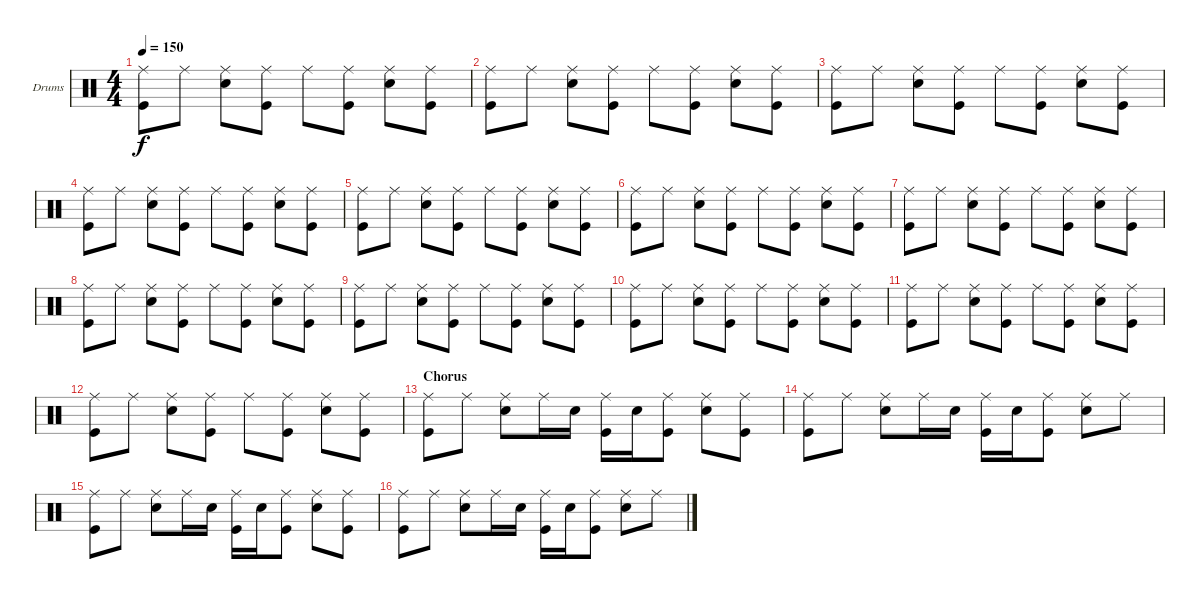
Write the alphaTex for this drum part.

\bracketExtendMode groupsimilarinstruments
\firstSystemTrackNameOrientation horizontal
\otherSystemsTrackNameOrientation horizontal
\track ("Fabrizio" "Drums") {instrument percussion}
\staff {score}
\articulation defaults
\ts (4 4)
\tempo 150
\clef neutral
\ks c
("Ride (middle)" "Kick (hit)").8{dy f} "Ride (middle)".8 ("Ride (middle)" "Snare (hit) 2").8 ("Ride (middle)" "Kick (hit)").8 "Ride (middle)".8 ("Ride (middle)" "Kick (hit)").8 ("Ride (middle)" "Snare (hit) 2").8 ("Ride (middle)" "Kick (hit)").8 |
("Ride (middle)" "Kick (hit)").8 "Ride (middle)".8 ("Ride (middle)" "Snare (hit) 2").8 ("Ride (middle)" "Kick (hit)").8 "Ride (middle)".8 ("Ride (middle)" "Kick (hit)").8 ("Ride (middle)" "Snare (hit) 2").8 ("Ride (middle)" "Kick (hit)").8 |
("Ride (middle)" "Kick (hit)").8 "Ride (middle)".8 ("Ride (middle)" "Snare (hit) 2").8 ("Ride (middle)" "Kick (hit)").8 "Ride (middle)".8 ("Ride (middle)" "Kick (hit)").8 ("Ride (middle)" "Snare (hit) 2").8 ("Ride (middle)" "Kick (hit)").8 |
("Ride (middle)" "Kick (hit)").8 "Ride (middle)".8 ("Ride (middle)" "Snare (hit) 2").8 ("Ride (middle)" "Kick (hit)").8 "Ride (middle)".8 ("Ride (middle)" "Kick (hit)").8 ("Ride (middle)" "Snare (hit) 2").8 ("Ride (middle)" "Kick (hit)").8 |
("Ride (middle)" "Kick (hit)").8 "Ride (middle)".8 ("Ride (middle)" "Snare (hit) 2").8 ("Ride (middle)" "Kick (hit)").8 "Ride (middle)".8 ("Ride (middle)" "Kick (hit)").8 ("Ride (middle)" "Snare (hit) 2").8 ("Ride (middle)" "Kick (hit)").8 |
("Ride (middle)" "Kick (hit)").8 "Ride (middle)".8 ("Ride (middle)" "Snare (hit) 2").8 ("Ride (middle)" "Kick (hit)").8 "Ride (middle)".8 ("Ride (middle)" "Kick (hit)").8 ("Ride (middle)" "Snare (hit) 2").8 ("Ride (middle)" "Kick (hit)").8 |
("Ride (middle)" "Kick (hit)").8 "Ride (middle)".8 ("Ride (middle)" "Snare (hit) 2").8 ("Ride (middle)" "Kick (hit)").8 "Ride (middle)".8 ("Ride (middle)" "Kick (hit)").8 ("Ride (middle)" "Snare (hit) 2").8 ("Ride (middle)" "Kick (hit)").8 |
("Ride (middle)" "Kick (hit)").8 "Ride (middle)".8 ("Ride (middle)" "Snare (hit) 2").8 ("Ride (middle)" "Kick (hit)").8 "Ride (middle)".8 ("Ride (middle)" "Kick (hit)").8 ("Ride (middle)" "Snare (hit) 2").8 ("Ride (middle)" "Kick (hit)").8 |
("Ride (middle)" "Kick (hit)").8 "Ride (middle)".8 ("Ride (middle)" "Snare (hit) 2").8 ("Ride (middle)" "Kick (hit)").8 "Ride (middle)".8 ("Ride (middle)" "Kick (hit)").8 ("Ride (middle)" "Snare (hit) 2").8 ("Ride (middle)" "Kick (hit)").8 |
("Ride (middle)" "Kick (hit)").8 "Ride (middle)".8 ("Ride (middle)" "Snare (hit) 2").8 ("Ride (middle)" "Kick (hit)").8 "Ride (middle)".8 ("Ride (middle)" "Kick (hit)").8 ("Ride (middle)" "Snare (hit) 2").8 ("Ride (middle)" "Kick (hit)").8 |
("Ride (middle)" "Kick (hit)").8 "Ride (middle)".8 ("Ride (middle)" "Snare (hit) 2").8 ("Ride (middle)" "Kick (hit)").8 "Ride (middle)".8 ("Ride (middle)" "Kick (hit)").8 ("Ride (middle)" "Snare (hit) 2").8 ("Ride (middle)" "Kick (hit)").8 |
("Ride (middle)" "Kick (hit)").8 "Ride (middle)".8 ("Ride (middle)" "Snare (hit) 2").8 ("Ride (middle)" "Kick (hit)").8 "Ride (middle)".8 ("Ride (middle)" "Kick (hit)").8 ("Ride (middle)" "Snare (hit) 2").8 ("Ride (middle)" "Kick (hit)").8 |
\section ("" "Chorus")
("Ride (middle)" "Kick (hit)").8 "Ride (middle)".8 ("Ride (middle)" "Snare (hit) 2").8 "Ride (middle)".16 "Snare (hit) 2".16 ("Ride (middle)" "Kick (hit)").16 "Snare (hit) 2".16 ("Ride (middle)" "Kick (hit)").8 ("Ride (middle)" "Snare (hit) 2").8 ("Ride (middle)" "Kick (hit)").8 |
("Ride (middle)" "Kick (hit)").8 "Ride (middle)".8 ("Ride (middle)" "Snare (hit) 2").8 "Ride (middle)".16 "Snare (hit) 2".16 ("Ride (middle)" "Kick (hit)").16 "Snare (hit) 2".16 ("Ride (middle)" "Kick (hit)").8 ("Ride (middle)" "Snare (hit) 2").8 "Ride (middle)".8 |
("Ride (middle)" "Kick (hit)").8 "Ride (middle)".8 ("Ride (middle)" "Snare (hit) 2").8 "Ride (middle)".16 "Snare (hit) 2".16 ("Ride (middle)" "Kick (hit)").16 "Snare (hit) 2".16 ("Ride (middle)" "Kick (hit)").8 ("Ride (middle)" "Snare (hit) 2").8 ("Ride (middle)" "Kick (hit)").8 |
("Ride (middle)" "Kick (hit)").8 "Ride (middle)".8 ("Ride (middle)" "Snare (hit) 2").8 "Ride (middle)".16 "Snare (hit) 2".16 ("Ride (middle)" "Kick (hit)").16 "Snare (hit) 2".16 ("Ride (middle)" "Kick (hit)").8 ("Ride (middle)" "Snare (hit) 2").8 "Ride (middle)".8
